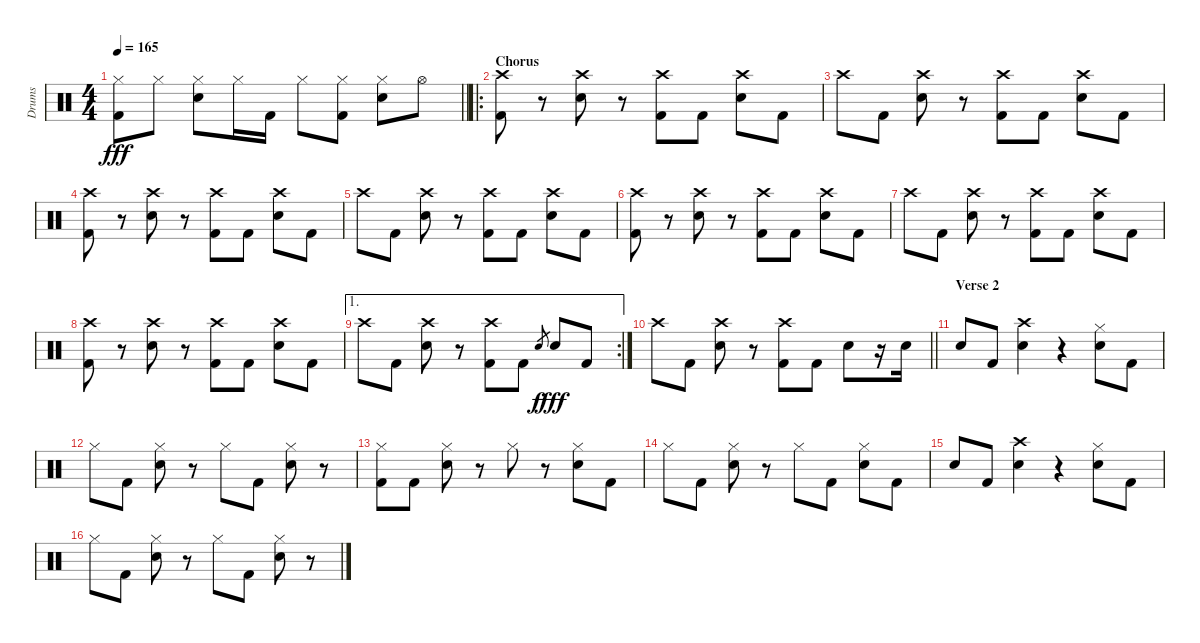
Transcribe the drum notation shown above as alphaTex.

\track ("Drums" "Drums") {instrument percussion}
\staff {score}
\articulation defaults
\ts (4 4)
\tempo 165
\clef neutral
\barLineRight lightlight
\ks c
("Hi-Hat (closed)" "Kick (hit) 2").8{dy fff} "Hi-Hat (closed)".8 ("Hi-Hat (closed)" "Electric Snare (hit)").8 "Hi-Hat (closed)".16 "Kick (hit) 2".16 "Hi-Hat (closed)".8 ("Hi-Hat (closed)" "Kick (hit) 2").8 ("Hi-Hat (closed)" "Electric Snare (hit)").8 "Hi-Hat (open)".8 |
\ro
\section ("" "Chorus")
("Crash high (hit)" "Kick (hit) 2").8{volume 16} r.8 ("Crash high (hit)" "Electric Snare (hit)").8 r.8 ("Crash high (hit)" "Kick (hit) 2").8 "Kick (hit) 2".8 ("Crash high (hit)" "Electric Snare (hit)").8 "Kick (hit) 2".8 |
"Crash high (hit)".8 "Kick (hit) 2".8 ("Crash high (hit)" "Electric Snare (hit)").8 r.8 ("Crash high (hit)" "Kick (hit) 2").8 "Kick (hit) 2".8 ("Crash high (hit)" "Electric Snare (hit)").8 "Kick (hit) 2".8 |
("Crash high (hit)" "Kick (hit) 2").8 r.8 ("Crash high (hit)" "Electric Snare (hit)").8 r.8 ("Crash high (hit)" "Kick (hit) 2").8 "Kick (hit) 2".8 ("Crash high (hit)" "Electric Snare (hit)").8 "Kick (hit) 2".8 |
"Crash high (hit)".8 "Kick (hit) 2".8 ("Crash high (hit)" "Electric Snare (hit)").8 r.8 ("Crash high (hit)" "Kick (hit) 2").8 "Kick (hit) 2".8 ("Crash high (hit)" "Electric Snare (hit)").8 "Kick (hit) 2".8 |
("Crash high (hit)" "Kick (hit) 2").8 r.8 ("Crash high (hit)" "Electric Snare (hit)").8 r.8 ("Crash high (hit)" "Kick (hit) 2").8 "Kick (hit) 2".8 ("Crash high (hit)" "Electric Snare (hit)").8 "Kick (hit) 2".8 |
"Crash high (hit)".8 "Kick (hit) 2".8 ("Crash high (hit)" "Electric Snare (hit)").8 r.8 ("Crash high (hit)" "Kick (hit) 2").8 "Kick (hit) 2".8 ("Crash high (hit)" "Electric Snare (hit)").8 "Kick (hit) 2".8 |
("Crash high (hit)" "Kick (hit) 2").8 r.8 ("Crash high (hit)" "Electric Snare (hit)").8 r.8 ("Crash high (hit)" "Kick (hit) 2").8 "Kick (hit) 2".8 ("Crash high (hit)" "Electric Snare (hit)").8 "Kick (hit) 2".8 |
\ae 1
\rc 2 "Crash high (hit)".8 "Kick (hit) 2".8
("Crash high (hit)" "Electric Snare (hit)").8 r.8 ("Crash high (hit)" "Kick (hit) 2").8 "Kick (hit) 2".8 "Electric Snare (hit)".8{gr dy f} "Electric Snare (hit)".8{dy fff} "Kick (hit) 2".8 |
\barLineRight lightlight "Crash high (hit)".8 "Kick (hit) 2".8
("Crash high (hit)" "Electric Snare (hit)").8 r.8 ("Crash high (hit)" "Kick (hit) 2").8 "Kick (hit) 2".8 "Electric Snare (hit)".8 r.16 "Electric Snare (hit)".16 |
\section ("" "Verse 2")
"Electric Snare (hit)".8 "Kick (hit) 2".8 ("Crash high (hit)" "Electric Snare (hit)").4 r.4 ("Hi-Hat (closed)" "Electric Snare (hit)").8 "Kick (hit) 2".8 |
"Hi-Hat (closed)".8 "Kick (hit) 2".8 ("Hi-Hat (closed)" "Electric Snare (hit)").8 r.8 "Hi-Hat (closed)".8 "Kick (hit) 2".8 ("Hi-Hat (closed)" "Electric Snare (hit)").8 r.8 |
("Hi-Hat (closed)" "Kick (hit) 2").8 "Kick (hit) 2".8 ("Hi-Hat (closed)" "Electric Snare (hit)").8 r.8 "Hi-Hat (closed)".8 r.8 ("Hi-Hat (closed)" "Electric Snare (hit)").8 "Kick (hit) 2".8 |
"Hi-Hat (closed)".8 "Kick (hit) 2".8 ("Hi-Hat (closed)" "Electric Snare (hit)").8 r.8 "Hi-Hat (closed)".8 "Kick (hit) 2".8 ("Hi-Hat (closed)" "Electric Snare (hit)").8 "Kick (hit) 2".8 |
"Electric Snare (hit)".8 "Kick (hit) 2".8 ("Crash high (hit)" "Electric Snare (hit)").4 r.4 ("Hi-Hat (closed)" "Electric Snare (hit)").8 "Kick (hit) 2".8 |
"Hi-Hat (closed)".8 "Kick (hit) 2".8 ("Hi-Hat (closed)" "Electric Snare (hit)").8 r.8 "Hi-Hat (closed)".8 "Kick (hit) 2".8 ("Hi-Hat (closed)" "Electric Snare (hit)").8 r.8
